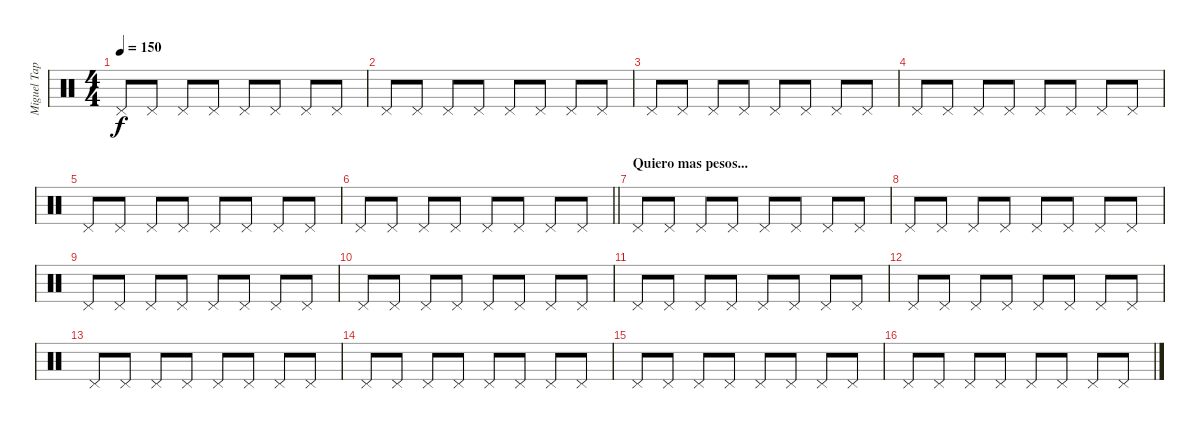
\track ("Miguel Tapia" "Miguel Tap") {instrument percussion}
\staff {score}
\articulation defaults
\ts (4 4)
\tempo 150
\clef neutral
\ks c "Pedal Hi-Hat (hit)".8{dy f} "Pedal Hi-Hat (hit)".8 "Pedal Hi-Hat (hit)".8 "Pedal Hi-Hat (hit)".8 "Pedal Hi-Hat (hit)".8 "Pedal Hi-Hat (hit)".8 "Pedal Hi-Hat (hit)".8 "Pedal Hi-Hat (hit)".8
|
"Pedal Hi-Hat (hit)".8 "Pedal Hi-Hat (hit)".8 "Pedal Hi-Hat (hit)".8 "Pedal Hi-Hat (hit)".8 "Pedal Hi-Hat (hit)".8 "Pedal Hi-Hat (hit)".8 "Pedal Hi-Hat (hit)".8 "Pedal Hi-Hat (hit)".8 |
"Pedal Hi-Hat (hit)".8 "Pedal Hi-Hat (hit)".8 "Pedal Hi-Hat (hit)".8 "Pedal Hi-Hat (hit)".8 "Pedal Hi-Hat (hit)".8 "Pedal Hi-Hat (hit)".8 "Pedal Hi-Hat (hit)".8 "Pedal Hi-Hat (hit)".8 |
"Pedal Hi-Hat (hit)".8 "Pedal Hi-Hat (hit)".8 "Pedal Hi-Hat (hit)".8 "Pedal Hi-Hat (hit)".8 "Pedal Hi-Hat (hit)".8 "Pedal Hi-Hat (hit)".8 "Pedal Hi-Hat (hit)".8 "Pedal Hi-Hat (hit)".8 |
"Pedal Hi-Hat (hit)".8 "Pedal Hi-Hat (hit)".8 "Pedal Hi-Hat (hit)".8 "Pedal Hi-Hat (hit)".8 "Pedal Hi-Hat (hit)".8 "Pedal Hi-Hat (hit)".8 "Pedal Hi-Hat (hit)".8 "Pedal Hi-Hat (hit)".8 |
\barLineRight lightlight "Pedal Hi-Hat (hit)".8 "Pedal Hi-Hat (hit)".8 "Pedal Hi-Hat (hit)".8 "Pedal Hi-Hat (hit)".8 "Pedal Hi-Hat (hit)".8 "Pedal Hi-Hat (hit)".8 "Pedal Hi-Hat (hit)".8 "Pedal Hi-Hat (hit)".8
|
\section ("" "Quiero mas pesos...")
"Pedal Hi-Hat (hit)".8 "Pedal Hi-Hat (hit)".8 "Pedal Hi-Hat (hit)".8 "Pedal Hi-Hat (hit)".8 "Pedal Hi-Hat (hit)".8 "Pedal Hi-Hat (hit)".8 "Pedal Hi-Hat (hit)".8 "Pedal Hi-Hat (hit)".8 |
"Pedal Hi-Hat (hit)".8 "Pedal Hi-Hat (hit)".8 "Pedal Hi-Hat (hit)".8 "Pedal Hi-Hat (hit)".8 "Pedal Hi-Hat (hit)".8 "Pedal Hi-Hat (hit)".8 "Pedal Hi-Hat (hit)".8 "Pedal Hi-Hat (hit)".8 |
"Pedal Hi-Hat (hit)".8 "Pedal Hi-Hat (hit)".8 "Pedal Hi-Hat (hit)".8 "Pedal Hi-Hat (hit)".8 "Pedal Hi-Hat (hit)".8 "Pedal Hi-Hat (hit)".8 "Pedal Hi-Hat (hit)".8 "Pedal Hi-Hat (hit)".8 |
"Pedal Hi-Hat (hit)".8 "Pedal Hi-Hat (hit)".8 "Pedal Hi-Hat (hit)".8 "Pedal Hi-Hat (hit)".8 "Pedal Hi-Hat (hit)".8 "Pedal Hi-Hat (hit)".8 "Pedal Hi-Hat (hit)".8 "Pedal Hi-Hat (hit)".8 |
"Pedal Hi-Hat (hit)".8 "Pedal Hi-Hat (hit)".8 "Pedal Hi-Hat (hit)".8 "Pedal Hi-Hat (hit)".8 "Pedal Hi-Hat (hit)".8 "Pedal Hi-Hat (hit)".8 "Pedal Hi-Hat (hit)".8 "Pedal Hi-Hat (hit)".8 |
"Pedal Hi-Hat (hit)".8 "Pedal Hi-Hat (hit)".8 "Pedal Hi-Hat (hit)".8 "Pedal Hi-Hat (hit)".8 "Pedal Hi-Hat (hit)".8 "Pedal Hi-Hat (hit)".8 "Pedal Hi-Hat (hit)".8 "Pedal Hi-Hat (hit)".8 |
"Pedal Hi-Hat (hit)".8 "Pedal Hi-Hat (hit)".8 "Pedal Hi-Hat (hit)".8 "Pedal Hi-Hat (hit)".8 "Pedal Hi-Hat (hit)".8 "Pedal Hi-Hat (hit)".8 "Pedal Hi-Hat (hit)".8 "Pedal Hi-Hat (hit)".8 |
"Pedal Hi-Hat (hit)".8 "Pedal Hi-Hat (hit)".8 "Pedal Hi-Hat (hit)".8 "Pedal Hi-Hat (hit)".8 "Pedal Hi-Hat (hit)".8 "Pedal Hi-Hat (hit)".8 "Pedal Hi-Hat (hit)".8 "Pedal Hi-Hat (hit)".8 |
"Pedal Hi-Hat (hit)".8 "Pedal Hi-Hat (hit)".8 "Pedal Hi-Hat (hit)".8 "Pedal Hi-Hat (hit)".8 "Pedal Hi-Hat (hit)".8 "Pedal Hi-Hat (hit)".8 "Pedal Hi-Hat (hit)".8 "Pedal Hi-Hat (hit)".8 |
"Pedal Hi-Hat (hit)".8 "Pedal Hi-Hat (hit)".8 "Pedal Hi-Hat (hit)".8 "Pedal Hi-Hat (hit)".8 "Pedal Hi-Hat (hit)".8 "Pedal Hi-Hat (hit)".8 "Pedal Hi-Hat (hit)".8 "Pedal Hi-Hat (hit)".8
